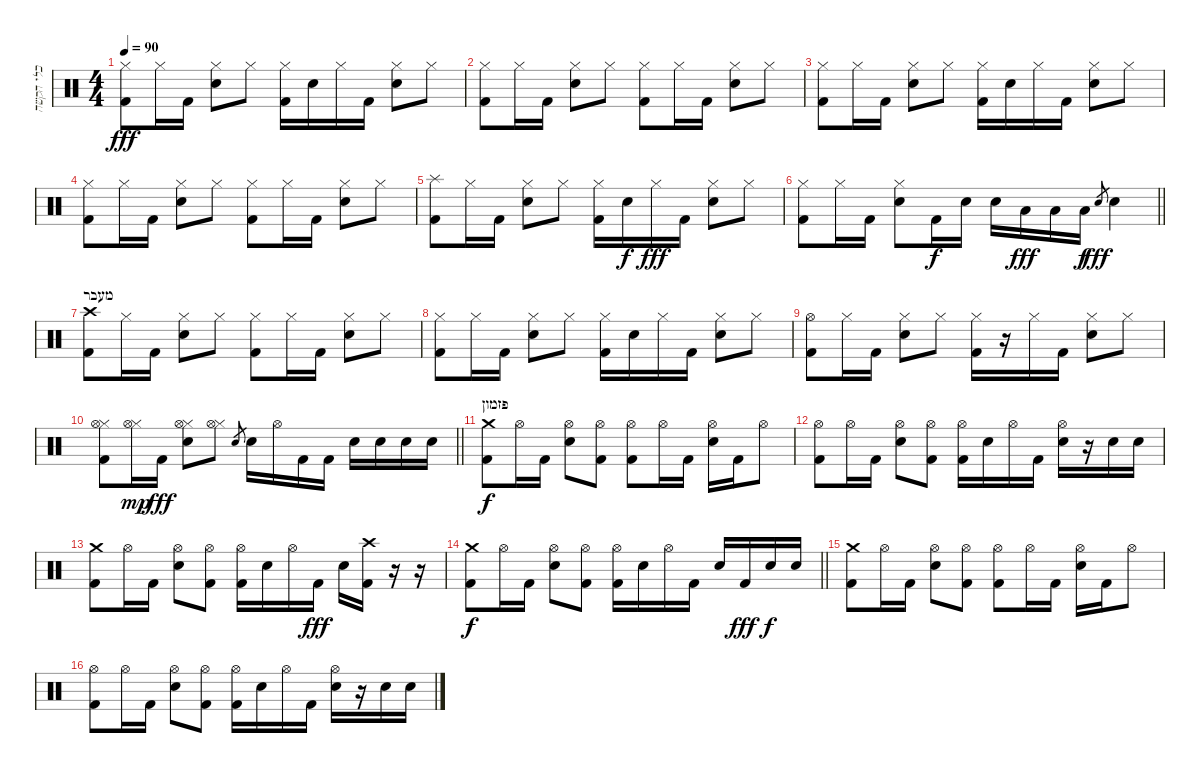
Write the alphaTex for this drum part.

\track ("כלי הקשה" "כלי הקשה") {instrument percussion}
\staff {score}
\articulation defaults
\ts (4 4)
\tempo 90
\clef neutral
\ks c
("Hi-Hat (closed)" "Kick (hit) 2").8{dy fff} "Hi-Hat (closed)".16 "Kick (hit) 2".16 ("Hi-Hat (closed)" "Electric Snare (hit)").8 "Hi-Hat (closed)".8 ("Hi-Hat (closed)" "Kick (hit) 2").16 "Electric Snare (hit)".16 "Hi-Hat (closed)".16 "Kick (hit) 2".16 ("Hi-Hat (closed)" "Electric Snare (hit)").8 "Hi-Hat (closed)".8 |
("Hi-Hat (closed)" "Kick (hit) 2").8 "Hi-Hat (closed)".16 "Kick (hit) 2".16 ("Hi-Hat (closed)" "Electric Snare (hit)").8 "Hi-Hat (closed)".8 ("Hi-Hat (closed)" "Kick (hit) 2").8 "Hi-Hat (closed)".16 "Kick (hit) 2".16 ("Hi-Hat (closed)" "Electric Snare (hit)").8 "Hi-Hat (closed)".8 |
("Hi-Hat (closed)" "Kick (hit) 2").8 "Hi-Hat (closed)".16 "Kick (hit) 2".16 ("Hi-Hat (closed)" "Electric Snare (hit)").8 "Hi-Hat (closed)".8 ("Hi-Hat (closed)" "Kick (hit) 2").16 "Electric Snare (hit)".16 "Hi-Hat (closed)".16 "Kick (hit) 2".16 ("Hi-Hat (closed)" "Electric Snare (hit)").8 "Hi-Hat (closed)".8 |
("Hi-Hat (closed)" "Kick (hit) 2").8 "Hi-Hat (closed)".16 "Kick (hit) 2".16 ("Hi-Hat (closed)" "Electric Snare (hit)").8 "Hi-Hat (closed)".8 ("Hi-Hat (closed)" "Kick (hit) 2").8 "Hi-Hat (closed)".16 "Kick (hit) 2".16 ("Hi-Hat (closed)" "Electric Snare (hit)").8 "Hi-Hat (closed)".8 |
("Splash (hit)" "Kick (hit) 2").8 "Hi-Hat (closed)".16 "Kick (hit) 2".16 ("Hi-Hat (closed)" "Electric Snare (hit)").8 "Hi-Hat (closed)".8 ("Hi-Hat (closed)" "Kick (hit) 2").16 "Electric Snare (hit)".16{dy f} "Hi-Hat (closed)".16{dy fff} "Kick (hit) 2".16 ("Hi-Hat (closed)" "Electric Snare (hit)").8 "Hi-Hat (closed)".8 |
\barLineRight lightlight
("Hi-Hat (closed)" "Kick (hit) 2").8 "Hi-Hat (closed)".16 "Kick (hit) 2".16 ("Hi-Hat (closed)" "Electric Snare (hit)").8 "Kick (hit) 2".16{dy f} "Electric Snare (hit)".16 "Electric Snare (hit)".16 "Low Tom (hit)".16{dy fff} "Low Tom (hit)".16 "Low Tom (hit)".16{dy f} "Electric Snare (hit)".8{gr dy fff} "Electric Snare (hit)".4 |
\section ("" "מעבר")
("Crash high (hit)" "Kick (hit) 2").8 "Hi-Hat (closed)".16 "Kick (hit) 2".16 ("Hi-Hat (closed)" "Electric Snare (hit)").8 "Hi-Hat (closed)".8 ("Hi-Hat (closed)" "Kick (hit) 2").8 "Hi-Hat (closed)".16 "Kick (hit) 2".16 ("Hi-Hat (closed)" "Electric Snare (hit)").8 "Hi-Hat (closed)".8 |
("Hi-Hat (closed)" "Kick (hit) 2").8 "Hi-Hat (closed)".16 "Kick (hit) 2".16 ("Hi-Hat (closed)" "Electric Snare (hit)").8 "Hi-Hat (closed)".8 ("Hi-Hat (closed)" "Kick (hit) 2").16 "Electric Snare (hit)".16 "Hi-Hat (closed)".16 "Kick (hit) 2".16 ("Hi-Hat (closed)" "Electric Snare (hit)").8 "Hi-Hat (closed)".8 |
("Hi-Hat (open)" "Kick (hit) 2").8 "Hi-Hat (closed)".16 "Kick (hit) 2".16 ("Hi-Hat (closed)" "Electric Snare (hit)").8 "Hi-Hat (closed)".8 ("Hi-Hat (closed)" "Kick (hit) 2").16 r.16 "Hi-Hat (closed)".16 "Kick (hit) 2".16 ("Hi-Hat (closed)" "Electric Snare (hit)").8 "Hi-Hat (closed)".8 |
\barLineRight lightlight
("Hi-Hat (closed)" "Hi-Hat (open)" "Kick (hit) 2").8 ("Hi-Hat (closed)" "Hi-Hat (open)").16{dy mp} "Kick (hit) 2".16{dy fff} ("Hi-Hat (closed)" "Hi-Hat (open)" "Electric Snare (hit)").8 ("Hi-Hat (closed)" "Hi-Hat (open)").8 "Electric Snare (hit)".8{gr} "Electric Snare (hit)".16 "Hi-Hat (open)".16 "Kick (hit) 2".16 "Kick (hit) 2".16 "Electric Snare (hit)".16 "Electric Snare (hit)".16 "Electric Snare (hit)".16 "Electric Snare (hit)".16 |
\section ("" "פזמון")
("Crash medium (hit)" "Kick (hit) 2").8{dy f} "Hi-Hat (open)".16 "Kick (hit) 2".16 ("Hi-Hat (open)" "Electric Snare (hit)").8 ("Hi-Hat (open)" "Kick (hit) 2").8 ("Hi-Hat (open)" "Kick (hit) 2").8 "Hi-Hat (open)".16 "Kick (hit) 2".16 ("Hi-Hat (open)" "Electric Snare (hit)").16 "Kick (hit) 2".16 "Hi-Hat (open)".8 |
("Hi-Hat (open)" "Kick (hit) 2").8 "Hi-Hat (open)".16 "Kick (hit) 2".16 ("Hi-Hat (open)" "Electric Snare (hit)").8 ("Hi-Hat (open)" "Kick (hit) 2").8 ("Hi-Hat (open)" "Kick (hit) 2").16 "Electric Snare (hit)".16 "Hi-Hat (open)".16 "Kick (hit) 2".16 ("Hi-Hat (open)" "Electric Snare (hit)").16 r.16 "Electric Snare (hit)".16 "Electric Snare (hit)".16 |
("Crash medium (hit)" "Kick (hit) 2").8 "Hi-Hat (open)".16 "Kick (hit) 2".16 ("Hi-Hat (open)" "Electric Snare (hit)").8 ("Hi-Hat (open)" "Kick (hit) 2").8 ("Hi-Hat (open)" "Kick (hit) 2").16 "Electric Snare (hit)".16 "Hi-Hat (open)".16 "Kick (hit) 2".16{dy fff} "Electric Snare (hit)".16 ("Crash high (hit)" "Kick (hit) 2").16 r.16 r.16 |
\barLineRight lightlight
("Crash medium (hit)" "Kick (hit) 2").8{dy f} "Hi-Hat (open)".16 "Kick (hit) 2".16 ("Hi-Hat (open)" "Electric Snare (hit)").8 ("Hi-Hat (open)" "Kick (hit) 2").8 ("Hi-Hat (open)" "Kick (hit) 2").16 "Electric Snare (hit)".16 "Hi-Hat (open)".16 "Kick (hit) 2".16 "Electric Snare (hit)".16 "Kick (hit) 2".16{dy fff} "Electric Snare (hit)".16{dy f} "Electric Snare (hit)".16 |
("Crash medium (hit)" "Kick (hit) 2").8 "Hi-Hat (open)".16 "Kick (hit) 2".16 ("Hi-Hat (open)" "Electric Snare (hit)").8 ("Hi-Hat (open)" "Kick (hit) 2").8 ("Hi-Hat (open)" "Kick (hit) 2").8 "Hi-Hat (open)".16 "Kick (hit) 2".16 ("Hi-Hat (open)" "Electric Snare (hit)").16 "Kick (hit) 2".16 "Hi-Hat (open)".8 |
("Hi-Hat (open)" "Kick (hit) 2").8 "Hi-Hat (open)".16 "Kick (hit) 2".16 ("Hi-Hat (open)" "Electric Snare (hit)").8 ("Hi-Hat (open)" "Kick (hit) 2").8 ("Hi-Hat (open)" "Kick (hit) 2").16 "Electric Snare (hit)".16 "Hi-Hat (open)".16 "Kick (hit) 2".16 ("Hi-Hat (open)" "Electric Snare (hit)").16 r.16 "Electric Snare (hit)".16 "Electric Snare (hit)".16
